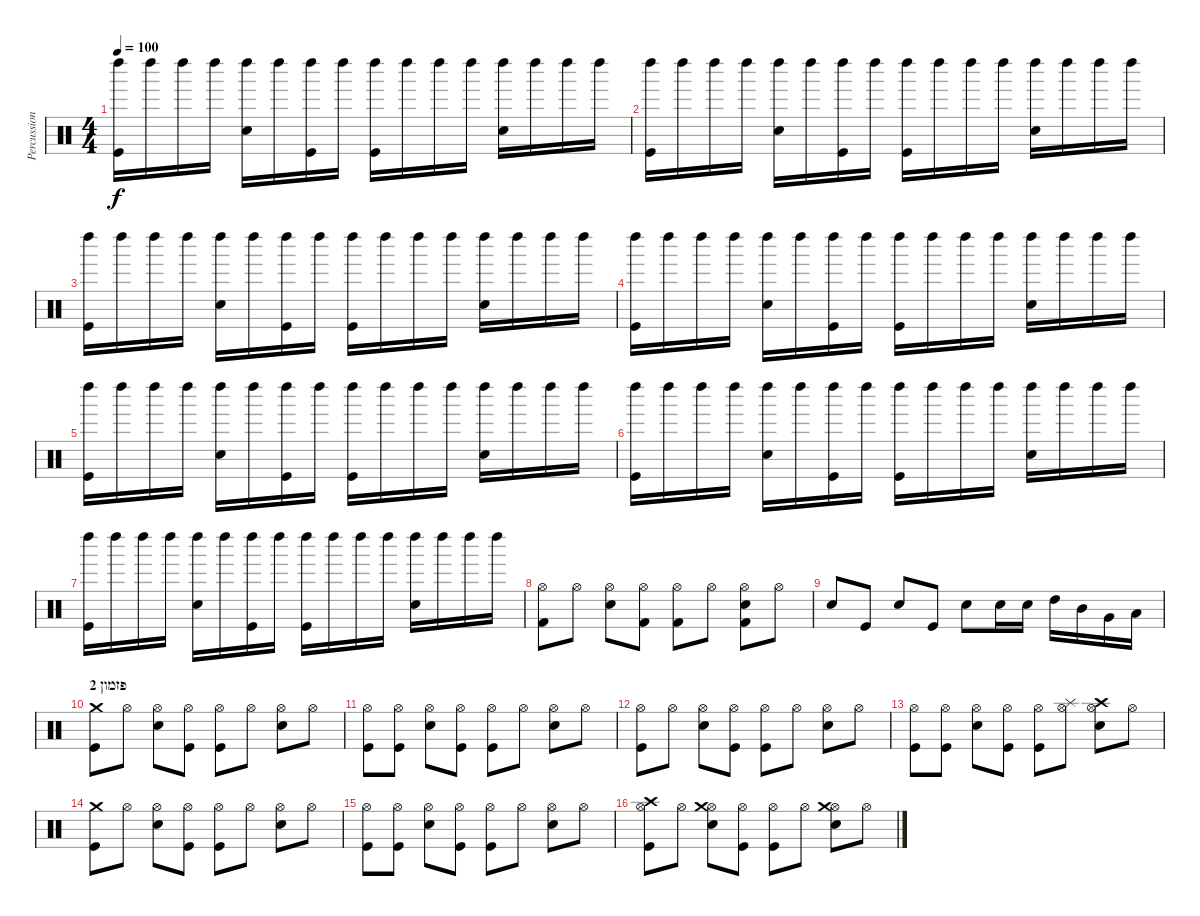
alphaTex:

\track ("Percussion" "Percussion") {instrument percussion}
\staff {score}
\articulation defaults
\ts (4 4)
\tempo 100
\clef neutral
\ks c
("Kick (hit)" "Left Maraca (hit)").16{dy f} "Left Maraca (hit)".16 "Left Maraca (hit)".16 "Left Maraca (hit)".16 ("Snare (hit) 2" "Left Maraca (hit)").16 "Left Maraca (hit)".16 ("Kick (hit)" "Left Maraca (hit)").16 "Left Maraca (hit)".16 ("Kick (hit)" "Left Maraca (hit)").16 "Left Maraca (hit)".16 "Left Maraca (hit)".16 "Left Maraca (hit)".16 ("Snare (hit) 2" "Left Maraca (hit)").16 "Left Maraca (hit)".16 "Left Maraca (hit)".16 "Left Maraca (hit)".16 |
("Kick (hit)" "Left Maraca (hit)").16 "Left Maraca (hit)".16 "Left Maraca (hit)".16 "Left Maraca (hit)".16 ("Snare (hit) 2" "Left Maraca (hit)").16 "Left Maraca (hit)".16 ("Kick (hit)" "Left Maraca (hit)").16 "Left Maraca (hit)".16 ("Kick (hit)" "Left Maraca (hit)").16 "Left Maraca (hit)".16 "Left Maraca (hit)".16 "Left Maraca (hit)".16 ("Snare (hit) 2" "Left Maraca (hit)").16 "Left Maraca (hit)".16 "Left Maraca (hit)".16 "Left Maraca (hit)".16 |
("Kick (hit)" "Left Maraca (hit)").16 "Left Maraca (hit)".16 "Left Maraca (hit)".16 "Left Maraca (hit)".16 ("Snare (hit) 2" "Left Maraca (hit)").16 "Left Maraca (hit)".16 ("Kick (hit)" "Left Maraca (hit)").16 "Left Maraca (hit)".16 ("Kick (hit)" "Left Maraca (hit)").16 "Left Maraca (hit)".16 "Left Maraca (hit)".16 "Left Maraca (hit)".16 ("Snare (hit) 2" "Left Maraca (hit)").16 "Left Maraca (hit)".16 "Left Maraca (hit)".16 "Left Maraca (hit)".16 |
("Kick (hit)" "Left Maraca (hit)").16 "Left Maraca (hit)".16 "Left Maraca (hit)".16 "Left Maraca (hit)".16 ("Snare (hit) 2" "Left Maraca (hit)").16 "Left Maraca (hit)".16 ("Kick (hit)" "Left Maraca (hit)").16 "Left Maraca (hit)".16 ("Kick (hit)" "Left Maraca (hit)").16 "Left Maraca (hit)".16 "Left Maraca (hit)".16 "Left Maraca (hit)".16 ("Snare (hit) 2" "Left Maraca (hit)").16 "Left Maraca (hit)".16 "Left Maraca (hit)".16 "Left Maraca (hit)".16 |
("Kick (hit)" "Left Maraca (hit)").16 "Left Maraca (hit)".16 "Left Maraca (hit)".16 "Left Maraca (hit)".16 ("Snare (hit) 2" "Left Maraca (hit)").16 "Left Maraca (hit)".16 ("Kick (hit)" "Left Maraca (hit)").16 "Left Maraca (hit)".16 ("Kick (hit)" "Left Maraca (hit)").16 "Left Maraca (hit)".16 "Left Maraca (hit)".16 "Left Maraca (hit)".16 ("Snare (hit) 2" "Left Maraca (hit)").16 "Left Maraca (hit)".16 "Left Maraca (hit)".16 "Left Maraca (hit)".16 |
("Kick (hit)" "Left Maraca (hit)").16 "Left Maraca (hit)".16 "Left Maraca (hit)".16 "Left Maraca (hit)".16 ("Snare (hit) 2" "Left Maraca (hit)").16 "Left Maraca (hit)".16 ("Kick (hit)" "Left Maraca (hit)").16 "Left Maraca (hit)".16 ("Kick (hit)" "Left Maraca (hit)").16 "Left Maraca (hit)".16 "Left Maraca (hit)".16 "Left Maraca (hit)".16 ("Snare (hit) 2" "Left Maraca (hit)").16 "Left Maraca (hit)".16 "Left Maraca (hit)".16 "Left Maraca (hit)".16 |
("Kick (hit)" "Left Maraca (hit)").16 "Left Maraca (hit)".16 "Left Maraca (hit)".16 "Left Maraca (hit)".16 ("Snare (hit) 2" "Left Maraca (hit)").16 "Left Maraca (hit)".16 ("Kick (hit)" "Left Maraca (hit)").16 "Left Maraca (hit)".16 ("Kick (hit)" "Left Maraca (hit)").16 "Left Maraca (hit)".16 "Left Maraca (hit)".16 "Left Maraca (hit)".16 ("Snare (hit) 2" "Left Maraca (hit)").16 "Left Maraca (hit)".16 "Left Maraca (hit)".16 "Left Maraca (hit)".16 |
("Hi-Hat (open)" "Kick (hit) 2").8 "Hi-Hat (open)".8 ("Hi-Hat (open)" "Snare (hit) 2").8 ("Hi-Hat (open)" "Kick (hit) 2").8 ("Hi-Hat (open)" "Kick (hit) 2").8 "Hi-Hat (open)".8 ("Hi-Hat (open)" "Snare (hit) 2" "Kick (hit) 2").8 "Hi-Hat (open)".8 |
"Snare (hit) 2".8 "Kick (hit)".8 "Snare (hit) 2".8 "Kick (hit)".8 "Snare (hit) 2".8 "Snare (hit) 2".16 "Snare (hit) 2".16 "High Tom (hit)".16 "Mid Tom (hit)".16 "Very Low Tom (hit)".16 "Low Tom (hit)".16 |
\section ("" "פזמון 2")
("Kick (hit)" "Crash medium (hit)").8 "Hi-Hat (open)".8 ("Hi-Hat (open)" "Snare (hit) 2").8 ("Hi-Hat (open)" "Kick (hit)").8 ("Hi-Hat (open)" "Kick (hit)").8 "Hi-Hat (open)".8 ("Hi-Hat (open)" "Snare (hit) 2").8 "Hi-Hat (open)".8 |
("Hi-Hat (open)" "Kick (hit)").8 ("Hi-Hat (open)" "Kick (hit)").8 ("Hi-Hat (open)" "Snare (hit) 2").8 ("Hi-Hat (open)" "Kick (hit)").8 ("Hi-Hat (open)" "Kick (hit)").8 "Hi-Hat (open)".8 ("Hi-Hat (open)" "Snare (hit) 2").8 "Hi-Hat (open)".8 |
("Hi-Hat (open)" "Kick (hit)").8 "Hi-Hat (open)".8 ("Hi-Hat (open)" "Snare (hit) 2").8 ("Hi-Hat (open)" "Kick (hit)").8 ("Hi-Hat (open)" "Kick (hit)").8 "Hi-Hat (open)".8 ("Hi-Hat (open)" "Snare (hit) 2").8 "Hi-Hat (open)".8 |
("Hi-Hat (open)" "Kick (hit)").8 ("Hi-Hat (open)" "Kick (hit)").8 ("Hi-Hat (open)" "Snare (hit) 2").8 ("Hi-Hat (open)" "Kick (hit)").8 ("Hi-Hat (open)" "Kick (hit)").8 ("Hi-Hat (open)" "Splash (hit)").8 ("Hi-Hat (open)" "Snare (hit) 2" "Crash high (hit)").8 "Hi-Hat (open)".8 |
("Kick (hit)" "Crash medium (hit)").8 "Hi-Hat (open)".8 ("Hi-Hat (open)" "Snare (hit) 2").8 ("Hi-Hat (open)" "Kick (hit)").8 ("Hi-Hat (open)" "Kick (hit)").8 "Hi-Hat (open)".8 ("Hi-Hat (open)" "Snare (hit) 2").8 "Hi-Hat (open)".8 |
("Hi-Hat (open)" "Kick (hit)").8 ("Hi-Hat (open)" "Kick (hit)").8 ("Hi-Hat (open)" "Snare (hit) 2").8 ("Hi-Hat (open)" "Kick (hit)").8 ("Hi-Hat (open)" "Kick (hit)").8 "Hi-Hat (open)".8 ("Hi-Hat (open)" "Snare (hit) 2").8 "Hi-Hat (open)".8 |
("Hi-Hat (open)" "Kick (hit)" "Crash high (hit)").8 "Hi-Hat (open)".8 ("Hi-Hat (open)" "Snare (hit) 2" "Crash medium (hit)").8 ("Hi-Hat (open)" "Kick (hit)").8 ("Hi-Hat (open)" "Kick (hit)").8 "Hi-Hat (open)".8 ("Hi-Hat (open)" "Snare (hit) 2" "Crash medium (hit)").8 "Hi-Hat (open)".8
